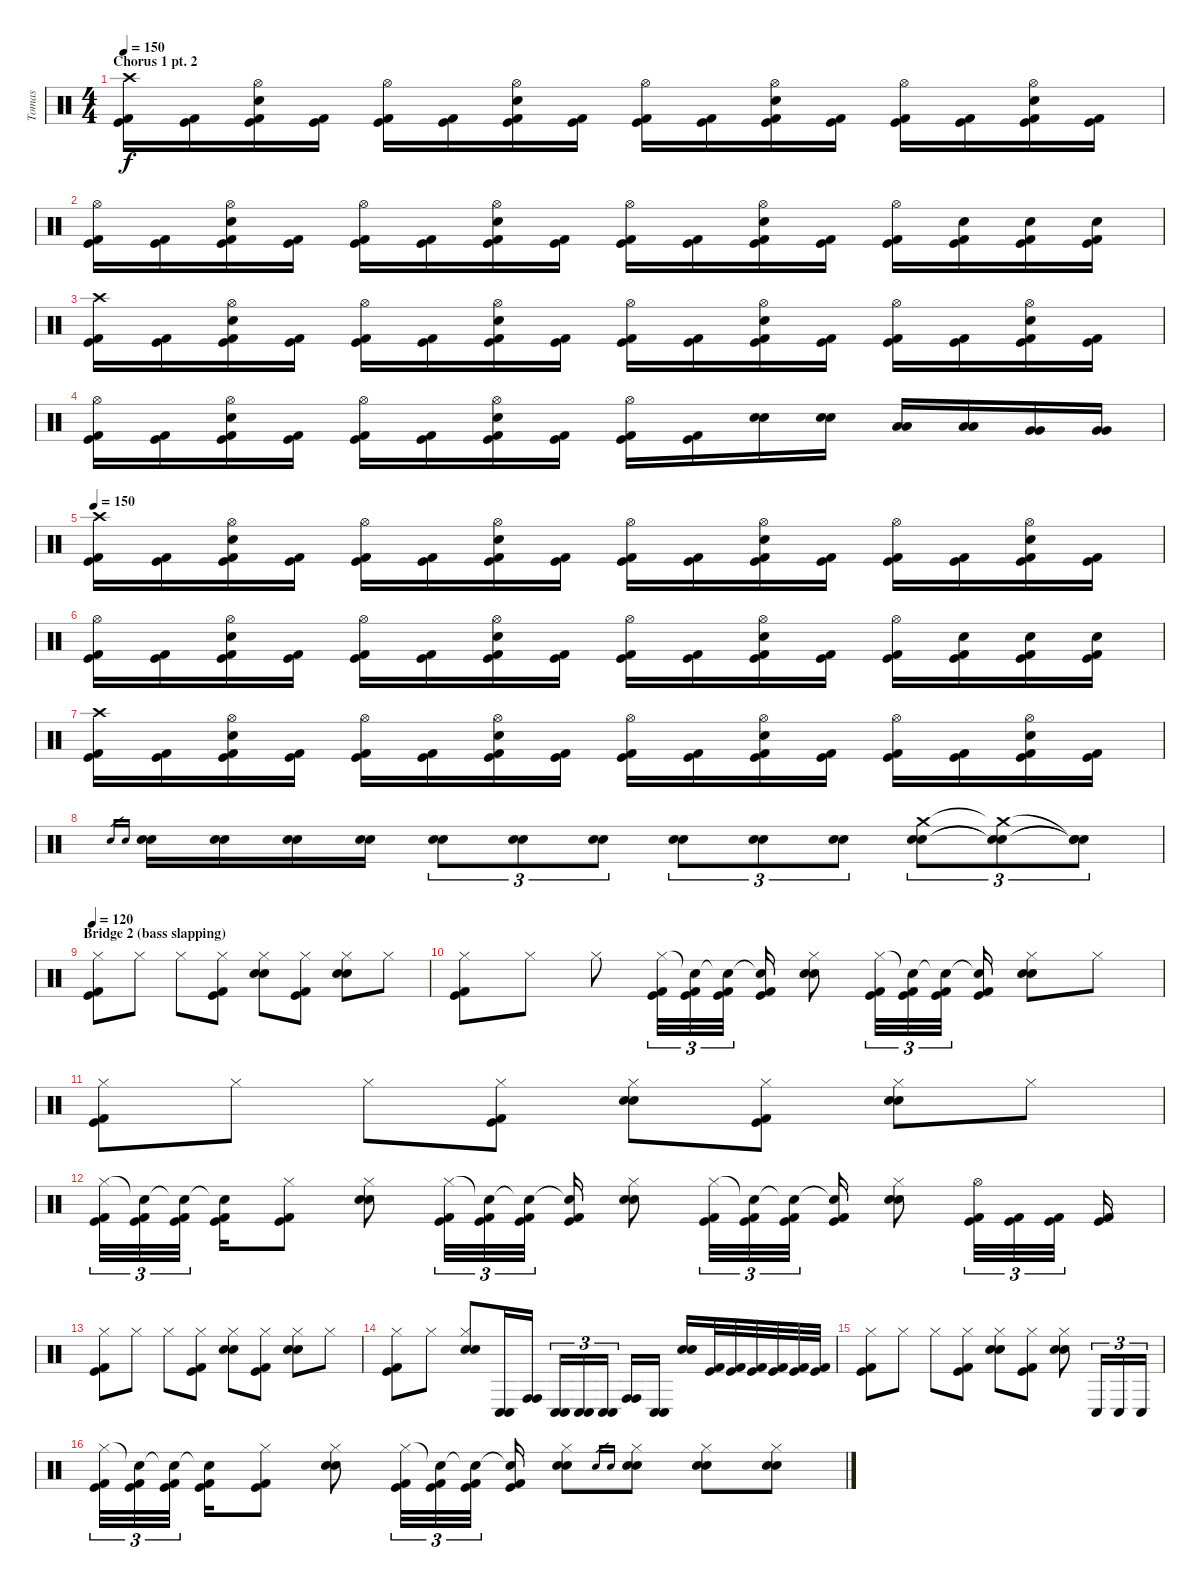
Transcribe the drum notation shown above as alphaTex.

\track ("Tomas" "Tomas") {instrument percussion}
\staff {score}
\articulation defaults
\ts (4 4)
\section ("" "Chorus 1 pt. 2")
\tempo 150
\clef neutral
\ks c
("Crash high (hit)" "Kick (hit)" "Kick (hit) 2").16{dy f} ("Kick (hit)" "Kick (hit) 2").16 ("Hi-Hat (open)" "Electric Snare (hit)" "Kick (hit)" "Kick (hit) 2").16 ("Kick (hit)" "Kick (hit) 2").16 ("Hi-Hat (open)" "Kick (hit)" "Kick (hit) 2").16 ("Kick (hit)" "Kick (hit) 2").16 ("Hi-Hat (open)" "Electric Snare (hit)" "Kick (hit)" "Kick (hit) 2").16 ("Kick (hit)" "Kick (hit) 2").16 ("Hi-Hat (open)" "Kick (hit)" "Kick (hit) 2").16 ("Kick (hit)" "Kick (hit) 2").16 ("Hi-Hat (open)" "Electric Snare (hit)" "Kick (hit)" "Kick (hit) 2").16 ("Kick (hit)" "Kick (hit) 2").16 ("Hi-Hat (open)" "Kick (hit)" "Kick (hit) 2").16 ("Kick (hit)" "Kick (hit) 2").16 ("Hi-Hat (open)" "Electric Snare (hit)" "Kick (hit)" "Kick (hit) 2").16 ("Kick (hit)" "Kick (hit) 2").16 |
("Hi-Hat (open)" "Kick (hit)" "Kick (hit) 2").16 ("Kick (hit)" "Kick (hit) 2").16 ("Hi-Hat (open)" "Electric Snare (hit)" "Kick (hit)" "Kick (hit) 2").16 ("Kick (hit)" "Kick (hit) 2").16 ("Hi-Hat (open)" "Kick (hit)" "Kick (hit) 2").16 ("Kick (hit)" "Kick (hit) 2").16 ("Hi-Hat (open)" "Electric Snare (hit)" "Kick (hit)" "Kick (hit) 2").16 ("Kick (hit)" "Kick (hit) 2").16 ("Hi-Hat (open)" "Kick (hit)" "Kick (hit) 2").16 ("Kick (hit)" "Kick (hit) 2").16 ("Hi-Hat (open)" "Electric Snare (hit)" "Kick (hit)" "Kick (hit) 2").16 ("Kick (hit)" "Kick (hit) 2").16 ("Hi-Hat (open)" "Kick (hit)" "Kick (hit) 2").16 ("Electric Snare (hit)" "Kick (hit)" "Kick (hit) 2").16 ("Electric Snare (hit)" "Kick (hit)" "Kick (hit) 2").16 ("Electric Snare (hit)" "Kick (hit)" "Kick (hit) 2").16 |
("Crash high (hit)" "Kick (hit)" "Kick (hit) 2").16 ("Kick (hit)" "Kick (hit) 2").16 ("Hi-Hat (open)" "Electric Snare (hit)" "Kick (hit)" "Kick (hit) 2").16 ("Kick (hit)" "Kick (hit) 2").16 ("Hi-Hat (open)" "Kick (hit)" "Kick (hit) 2").16 ("Kick (hit)" "Kick (hit) 2").16 ("Hi-Hat (open)" "Electric Snare (hit)" "Kick (hit)" "Kick (hit) 2").16 ("Kick (hit)" "Kick (hit) 2").16 ("Hi-Hat (open)" "Kick (hit)" "Kick (hit) 2").16 ("Kick (hit)" "Kick (hit) 2").16 ("Hi-Hat (open)" "Electric Snare (hit)" "Kick (hit)" "Kick (hit) 2").16 ("Kick (hit)" "Kick (hit) 2").16 ("Hi-Hat (open)" "Kick (hit)" "Kick (hit) 2").16 ("Kick (hit)" "Kick (hit) 2").16 ("Hi-Hat (open)" "Electric Snare (hit)" "Kick (hit)" "Kick (hit) 2").16 ("Kick (hit)" "Kick (hit) 2").16 |
("Hi-Hat (open)" "Kick (hit)" "Kick (hit) 2").16 ("Kick (hit)" "Kick (hit) 2").16 ("Hi-Hat (open)" "Electric Snare (hit)" "Kick (hit)" "Kick (hit) 2").16 ("Kick (hit)" "Kick (hit) 2").16 ("Hi-Hat (open)" "Kick (hit)" "Kick (hit) 2").16 ("Kick (hit)" "Kick (hit) 2").16 ("Hi-Hat (open)" "Electric Snare (hit)" "Kick (hit)" "Kick (hit) 2").16 ("Kick (hit)" "Kick (hit) 2").16 ("Hi-Hat (open)" "Kick (hit)" "Kick (hit) 2").16 ("Kick (hit)" "Kick (hit) 2").16 ("Electric Snare (hit)" "Electric Snare (hit)").16 ("Electric Snare (hit)" "Electric Snare (hit)").16 ("Low Tom (hit)" "Low Tom (hit)").16 ("Low Tom (hit)" "Low Tom (hit)").16 ("Very Low Tom (hit)" "Very Low Tom (hit)").16 ("Very Low Tom (hit)" "Very Low Tom (hit)").16 |
\tempo 150
("Crash high (hit)" "Kick (hit)" "Kick (hit) 2").16 ("Kick (hit)" "Kick (hit) 2").16 ("Hi-Hat (open)" "Electric Snare (hit)" "Kick (hit)" "Kick (hit) 2").16 ("Kick (hit)" "Kick (hit) 2").16 ("Hi-Hat (open)" "Kick (hit)" "Kick (hit) 2").16 ("Kick (hit)" "Kick (hit) 2").16 ("Hi-Hat (open)" "Electric Snare (hit)" "Kick (hit)" "Kick (hit) 2").16 ("Kick (hit)" "Kick (hit) 2").16 ("Hi-Hat (open)" "Kick (hit)" "Kick (hit) 2").16 ("Kick (hit)" "Kick (hit) 2").16 ("Hi-Hat (open)" "Electric Snare (hit)" "Kick (hit)" "Kick (hit) 2").16 ("Kick (hit)" "Kick (hit) 2").16 ("Hi-Hat (open)" "Kick (hit)" "Kick (hit) 2").16 ("Kick (hit)" "Kick (hit) 2").16 ("Hi-Hat (open)" "Electric Snare (hit)" "Kick (hit)" "Kick (hit) 2").16 ("Kick (hit)" "Kick (hit) 2").16 |
("Hi-Hat (open)" "Kick (hit)" "Kick (hit) 2").16 ("Kick (hit)" "Kick (hit) 2").16 ("Hi-Hat (open)" "Electric Snare (hit)" "Kick (hit)" "Kick (hit) 2").16 ("Kick (hit)" "Kick (hit) 2").16 ("Hi-Hat (open)" "Kick (hit)" "Kick (hit) 2").16 ("Kick (hit)" "Kick (hit) 2").16 ("Hi-Hat (open)" "Electric Snare (hit)" "Kick (hit)" "Kick (hit) 2").16 ("Kick (hit)" "Kick (hit) 2").16 ("Hi-Hat (open)" "Kick (hit)" "Kick (hit) 2").16 ("Kick (hit)" "Kick (hit) 2").16 ("Hi-Hat (open)" "Electric Snare (hit)" "Kick (hit)" "Kick (hit) 2").16 ("Kick (hit)" "Kick (hit) 2").16 ("Hi-Hat (open)" "Kick (hit)" "Kick (hit) 2").16 ("Electric Snare (hit)" "Kick (hit)" "Kick (hit) 2").16 ("Electric Snare (hit)" "Kick (hit)" "Kick (hit) 2").16 ("Electric Snare (hit)" "Kick (hit)" "Kick (hit) 2").16 |
("Crash high (hit)" "Kick (hit)" "Kick (hit) 2").16 ("Kick (hit)" "Kick (hit) 2").16 ("Hi-Hat (open)" "Electric Snare (hit)" "Kick (hit)" "Kick (hit) 2").16 ("Kick (hit)" "Kick (hit) 2").16 ("Hi-Hat (open)" "Kick (hit)" "Kick (hit) 2").16 ("Kick (hit)" "Kick (hit) 2").16 ("Hi-Hat (open)" "Electric Snare (hit)" "Kick (hit)" "Kick (hit) 2").16 ("Kick (hit)" "Kick (hit) 2").16 ("Hi-Hat (open)" "Kick (hit)" "Kick (hit) 2").16 ("Kick (hit)" "Kick (hit) 2").16 ("Hi-Hat (open)" "Electric Snare (hit)" "Kick (hit)" "Kick (hit) 2").16 ("Kick (hit)" "Kick (hit) 2").16 ("Hi-Hat (open)" "Kick (hit)" "Kick (hit) 2").16 ("Kick (hit)" "Kick (hit) 2").16 ("Hi-Hat (open)" "Electric Snare (hit)" "Kick (hit)" "Kick (hit) 2").16 ("Kick (hit)" "Kick (hit) 2").16 |
"Electric Snare (hit)".16{gr} "Electric Snare (hit)".16{gr} ("Electric Snare (hit)" "Electric Snare (hit)").16 ("Electric Snare (hit)" "Electric Snare (hit)").16 ("Electric Snare (hit)" "Electric Snare (hit)").16 ("Electric Snare (hit)" "Electric Snare (hit)").16 ("Electric Snare (hit)" "Electric Snare (hit)").8{tu (3 2)} ("Electric Snare (hit)" "Electric Snare (hit)").8{tu (3 2)} ("Electric Snare (hit)" "Electric Snare (hit)").8{tu (3 2)} ("Electric Snare (hit)" "Electric Snare (hit)").8{tu (3 2)} ("Electric Snare (hit)" "Electric Snare (hit)").8{tu (3 2)} ("Electric Snare (hit)" "Electric Snare (hit)").8{tu (3 2)} ("Crash medium (hit)" "Electric Snare (hit)" "Electric Snare (hit)").8{tu (3 2)} ("Crash medium (hit)"{t} "Electric Snare (hit)"{t} "Electric Snare (hit)"{t}).8{tu (3 2)} ("Snare (hit)"{t} "Electric Snare (hit)"{t} "Electric Snare (hit)"{t}).8{tu (3 2)} |
\section ("" "Bridge 2 (bass slapping) ")
\tempo 120
("Hi-Hat (closed)" "Kick (hit)" "Kick (hit) 2").8{volume 13} "Hi-Hat (closed)".8 "Hi-Hat (closed)".8 ("Hi-Hat (closed)" "Kick (hit)" "Kick (hit) 2").8 ("Hi-Hat (closed)" "Electric Snare (hit)" "Electric Snare (hit)").8 ("Hi-Hat (closed)" "Kick (hit)" "Kick (hit) 2").8 ("Hi-Hat (closed)" "Electric Snare (hit)" "Electric Snare (hit)").8 "Hi-Hat (closed)".8 |
("Hi-Hat (closed)" "Kick (hit)" "Kick (hit) 2").8 "Hi-Hat (closed)".8 "Hi-Hat (closed)".8 ("Hi-Hat (closed)" "Kick (hit)" "Kick (hit) 2").32{tu (3 2)} ("Snare (hit)"{t} "Kick (hit)" "Kick (hit) 2").32{tu (3 2)} ("Snare (hit)"{t} "Kick (hit)" "Kick (hit) 2").32{tu (3 2)} ("Snare (hit)"{t} "Kick (hit)" "Kick (hit) 2").16 ("Hi-Hat (closed)" "Electric Snare (hit)" "Electric Snare (hit)").8 ("Hi-Hat (closed)" "Kick (hit)" "Kick (hit) 2").32{tu (3 2)} ("Snare (hit)"{t} "Kick (hit)" "Kick (hit) 2").32{tu (3 2)} ("Snare (hit)"{t} "Kick (hit)" "Kick (hit) 2").32{tu (3 2)} ("Snare (hit)"{t} "Kick (hit)" "Kick (hit) 2").16 ("Hi-Hat (closed)" "Electric Snare (hit)" "Electric Snare (hit)").8 "Hi-Hat (closed)".8 |
("Hi-Hat (closed)" "Kick (hit)" "Kick (hit) 2").8 "Hi-Hat (closed)".8 "Hi-Hat (closed)".8 ("Hi-Hat (closed)" "Kick (hit)" "Kick (hit) 2").8 ("Hi-Hat (closed)" "Electric Snare (hit)" "Electric Snare (hit)").8 ("Hi-Hat (closed)" "Kick (hit)" "Kick (hit) 2").8 ("Hi-Hat (closed)" "Electric Snare (hit)" "Electric Snare (hit)").8 "Hi-Hat (closed)".8 |
("Hi-Hat (closed)" "Kick (hit)" "Kick (hit) 2").32{tu (3 2)} ("Snare (hit)"{t} "Kick (hit)" "Kick (hit) 2").32{tu (3 2)} ("Snare (hit)"{t} "Kick (hit)" "Kick (hit) 2").32{tu (3 2)} ("Snare (hit)"{t} "Kick (hit)" "Kick (hit) 2").16 ("Hi-Hat (closed)" "Kick (hit)" "Kick (hit) 2").8 ("Hi-Hat (closed)" "Electric Snare (hit)" "Electric Snare (hit)").8 ("Hi-Hat (closed)" "Kick (hit)" "Kick (hit) 2").32{tu (3 2)} ("Snare (hit)"{t} "Kick (hit)" "Kick (hit) 2").32{tu (3 2)} ("Snare (hit)"{t} "Kick (hit)" "Kick (hit) 2").32{tu (3 2)} ("Snare (hit)"{t} "Kick (hit)" "Kick (hit) 2").16 ("Hi-Hat (closed)" "Electric Snare (hit)" "Electric Snare (hit)").8 ("Hi-Hat (closed)" "Kick (hit)" "Kick (hit) 2").32{tu (3 2)} ("Snare (hit)"{t} "Kick (hit)" "Kick (hit) 2").32{tu (3 2)} ("Snare (hit)"{t} "Kick (hit)" "Kick (hit) 2").32{tu (3 2)} ("Snare (hit)"{t} "Kick (hit)" "Kick (hit) 2").16 ("Hi-Hat (closed)" "Electric Snare (hit)" "Electric Snare (hit)").8 ("Hi-Hat (open)" "Kick (hit)" "Kick (hit) 2").32{tu (3 2)} ("Kick (hit)" "Kick (hit) 2").32{tu (3 2)} ("Kick (hit)" "Kick (hit) 2").32{tu (3 2)} ("Kick (hit)" "Kick (hit) 2").16 |
("Hi-Hat (closed)" "Kick (hit)" "Kick (hit) 2").8 "Hi-Hat (closed)".8 "Hi-Hat (closed)".8 ("Hi-Hat (closed)" "Kick (hit)" "Kick (hit) 2").8 ("Hi-Hat (closed)" "Electric Snare (hit)" "Electric Snare (hit)").8 ("Hi-Hat (closed)" "Kick (hit)" "Kick (hit) 2").8 ("Hi-Hat (closed)" "Electric Snare (hit)" "Electric Snare (hit)").8 "Hi-Hat (closed)".8 |
("Hi-Hat (closed)" "Kick (hit)" "Kick (hit) 2").8 "Hi-Hat (closed)".8 ("Hi-Hat (closed)" "Electric Snare (hit)" "Electric Snare (hit)").8 ("Conga low (hit)" "Conga low (hit)").16 ("Conga high (hit)" "Conga high (hit)").16 ("Conga low (hit)" "Conga low (hit)").16{tu (3 2)} ("Conga low (hit)" "Conga low (hit)").16{tu (3 2)} ("Conga low (hit)" "Conga low (hit)").16{tu (3 2)} ("Conga high (hit)" "Conga high (hit)").16 ("Conga low (hit)" "Conga low (hit)").16 ("Electric Snare (hit)" "Electric Snare (hit)").16 ("Kick (hit)" "Kick (hit) 2").32 ("Kick (hit)" "Kick (hit) 2").32 ("Kick (hit)" "Kick (hit) 2").32 ("Kick (hit)" "Kick (hit) 2").32 ("Kick (hit)" "Kick (hit) 2").32 ("Kick (hit)" "Kick (hit) 2").32 |
("Hi-Hat (closed)" "Kick (hit)" "Kick (hit) 2").8 "Hi-Hat (closed)".8 "Hi-Hat (closed)".8 ("Hi-Hat (closed)" "Kick (hit)" "Kick (hit) 2").8 ("Hi-Hat (closed)" "Electric Snare (hit)" "Electric Snare (hit)").8 ("Hi-Hat (closed)" "Kick (hit)" "Kick (hit) 2").8 ("Hi-Hat (closed)" "Electric Snare (hit)" "Electric Snare (hit)").8 "Conga low (hit)".16{tu (3 2)} "Conga low (hit)".16{tu (3 2)} "Conga low (hit)".16{tu (3 2)} |
("Hi-Hat (closed)" "Kick (hit)" "Kick (hit) 2").32{tu (3 2)} ("Snare (hit)"{t} "Kick (hit)" "Kick (hit) 2").32{tu (3 2)} ("Snare (hit)"{t} "Kick (hit)" "Kick (hit) 2").32{tu (3 2)} ("Snare (hit)"{t} "Kick (hit)" "Kick (hit) 2").16 ("Hi-Hat (closed)" "Kick (hit)" "Kick (hit) 2").8 ("Hi-Hat (closed)" "Electric Snare (hit)" "Electric Snare (hit)").8 ("Hi-Hat (closed)" "Kick (hit)" "Kick (hit) 2").32{tu (3 2)} ("Snare (hit)"{t} "Kick (hit)" "Kick (hit) 2").32{tu (3 2)} ("Snare (hit)"{t} "Kick (hit)" "Kick (hit) 2").32{tu (3 2)} ("Snare (hit)"{t} "Kick (hit)" "Kick (hit) 2").16 ("Hi-Hat (closed)" "Electric Snare (hit)" "Electric Snare (hit)").8 "Electric Snare (hit)".16{gr} "Electric Snare (hit)".16{gr} ("Hi-Hat (closed)" "Electric Snare (hit)" "Electric Snare (hit)").8 ("Hi-Hat (closed)" "Electric Snare (hit)" "Electric Snare (hit)").8 ("Hi-Hat (closed)" "Electric Snare (hit)" "Electric Snare (hit)").8
